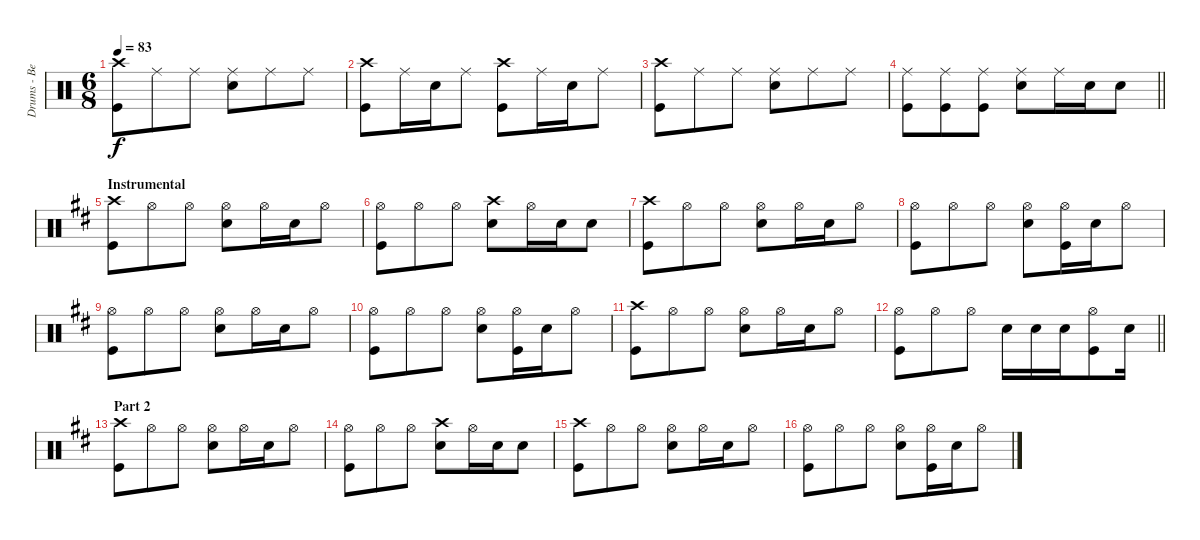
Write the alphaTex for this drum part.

\track ("Drums - Ben Johnston" "Drums - Be") {instrument percussion}
\staff {score}
\articulation defaults
\ts (6 8)
\tempo 83
\clef neutral
\ks aminor
("Crash high (hit)" "Kick (hit)").8{dy f} "Ride (middle)".8 "Ride (middle)".8 ("Ride (middle)" "Snare (hit) 2").8 "Ride (middle)".8 "Ride (middle)".8 |
("Crash high (hit)" "Kick (hit)").8 "Ride (middle)".16 "Snare (hit) 2".16 "Ride (middle)".8 ("Crash high (hit)" "Kick (hit)").8 "Ride (middle)".16 "Snare (hit) 2".16 "Ride (middle)".8 |
("Crash high (hit)" "Kick (hit)").8 "Ride (middle)".8 "Ride (middle)".8 ("Ride (middle)" "Snare (hit) 2").8 "Ride (middle)".8 "Ride (middle)".8 |
\barLineRight lightlight
("Ride (middle)" "Kick (hit)").8 ("Ride (middle)" "Kick (hit)").8 ("Ride (middle)" "Kick (hit)").8 ("Ride (middle)" "Snare (hit) 2").8 "Ride (middle)".16 "Snare (hit) 2".16 "Snare (hit) 2".8 |
\section ("" "Instrumental")
\ks d
("Crash high (hit)" "Kick (hit)").8 "Hi-Hat (open)".8 "Hi-Hat (open)".8 ("Hi-Hat (open)" "Snare (hit) 2").8 "Hi-Hat (open)".16 "Snare (hit) 2".16 "Hi-Hat (open)".8 |
("Hi-Hat (open)" "Kick (hit)").8 "Hi-Hat (open)".8 "Hi-Hat (open)".8 ("Crash high (hit)" "Snare (hit) 2").8 "Hi-Hat (open)".16 "Snare (hit) 2".16 "Snare (hit) 2".8 |
("Crash high (hit)" "Kick (hit)").8 "Hi-Hat (open)".8 "Hi-Hat (open)".8 ("Hi-Hat (open)" "Snare (hit) 2").8 "Hi-Hat (open)".16 "Snare (hit) 2".16 "Hi-Hat (open)".8 |
("Hi-Hat (open)" "Kick (hit)").8 "Hi-Hat (open)".8 "Hi-Hat (open)".8 ("Hi-Hat (open)" "Snare (hit) 2").8 ("Hi-Hat (open)" "Kick (hit)").16 "Snare (hit) 2".16 "Hi-Hat (open)".8 |
("Hi-Hat (open)" "Kick (hit)").8 "Hi-Hat (open)".8 "Hi-Hat (open)".8 ("Hi-Hat (open)" "Snare (hit) 2").8 "Hi-Hat (open)".16 "Snare (hit) 2".16 "Hi-Hat (open)".8 |
("Hi-Hat (open)" "Kick (hit)").8 "Hi-Hat (open)".8 "Hi-Hat (open)".8 ("Hi-Hat (open)" "Snare (hit) 2").8 ("Hi-Hat (open)" "Kick (hit)").16 "Snare (hit) 2".16 "Hi-Hat (open)".8 |
("Crash high (hit)" "Kick (hit)").8 "Hi-Hat (open)".8 "Hi-Hat (open)".8 ("Hi-Hat (open)" "Snare (hit) 2").8 "Hi-Hat (open)".16 "Snare (hit) 2".16 "Hi-Hat (open)".8 |
\barLineRight lightlight
("Hi-Hat (open)" "Kick (hit)").8 "Hi-Hat (open)".8 "Hi-Hat (open)".8 "Snare (hit) 2".16 "Snare (hit) 2".16 "Snare (hit) 2".16 ("Hi-Hat (open)" "Kick (hit)").8 "Snare (hit) 2".16 |
\section ("" "Part 2")
("Crash high (hit)" "Kick (hit)").8 "Hi-Hat (open)".8 "Hi-Hat (open)".8 ("Hi-Hat (open)" "Snare (hit) 2").8 "Hi-Hat (open)".16 "Snare (hit) 2".16 "Hi-Hat (open)".8 |
("Hi-Hat (open)" "Kick (hit)").8 "Hi-Hat (open)".8 "Hi-Hat (open)".8 ("Crash high (hit)" "Snare (hit) 2").8 "Hi-Hat (open)".16 "Snare (hit) 2".16 "Snare (hit) 2".8 |
("Crash high (hit)" "Kick (hit)").8 "Hi-Hat (open)".8 "Hi-Hat (open)".8 ("Hi-Hat (open)" "Snare (hit) 2").8 "Hi-Hat (open)".16 "Snare (hit) 2".16 "Hi-Hat (open)".8 |
("Hi-Hat (open)" "Kick (hit)").8 "Hi-Hat (open)".8 "Hi-Hat (open)".8 ("Hi-Hat (open)" "Snare (hit) 2").8 ("Hi-Hat (open)" "Kick (hit)").16 "Snare (hit) 2".16 "Hi-Hat (open)".8
